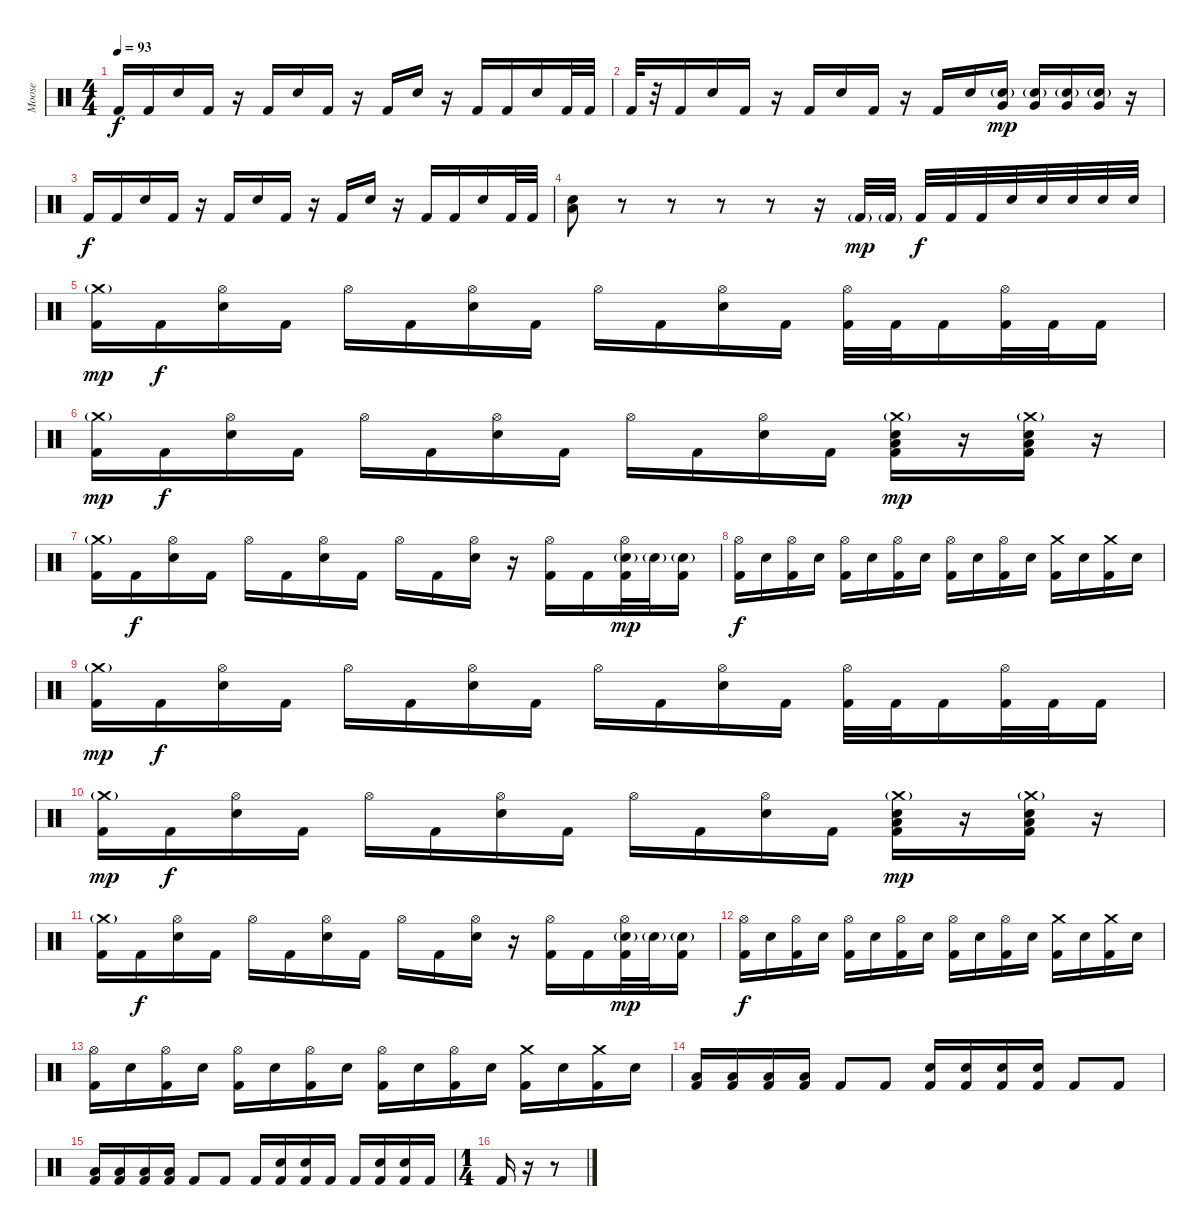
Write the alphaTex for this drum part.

\track ("Moose" "Moose") {instrument percussion}
\staff {score}
\articulation defaults
\ts (4 4)
\tempo 93
\clef neutral
\ks c "Kick (hit) 2".16{dy f} "Kick (hit) 2".16 "Electric Snare (hit)".16 "Kick (hit) 2".16
r.16 "Kick (hit) 2".16 "Electric Snare (hit)".16 "Kick (hit) 2".16 r.16 "Kick (hit) 2".16 "Electric Snare (hit)".16 r.16 "Kick (hit) 2".16 "Kick (hit) 2".16 "Electric Snare (hit)".16 "Kick (hit) 2".32 "Kick (hit) 2".32 |
"Kick (hit) 2".32 r.32 "Kick (hit) 2".16 "Electric Snare (hit)".16 "Kick (hit) 2".16 r.16 "Kick (hit) 2".16 "Electric Snare (hit)".16 "Kick (hit) 2".16 r.16 "Kick (hit) 2".16 "Electric Snare (hit)".16 ("Very Low Tom (hit)" "Electric Snare (hit)"{g}).16{dy mp} ("Very Low Tom (hit)" "Electric Snare (hit)"{g}).16 ("Very Low Tom (hit)" "Electric Snare (hit)"{g}).16 ("Very Low Tom (hit)" "Electric Snare (hit)"{g}).16 r.16 |
"Kick (hit) 2".16{dy f} "Kick (hit) 2".16 "Electric Snare (hit)".16 "Kick (hit) 2".16 r.16 "Kick (hit) 2".16 "Electric Snare (hit)".16 "Kick (hit) 2".16 r.16 "Kick (hit) 2".16 "Electric Snare (hit)".16 r.16 "Kick (hit) 2".16 "Kick (hit) 2".16 "Electric Snare (hit)".16 "Kick (hit) 2".32 "Kick (hit) 2".32 |
("Low Floor Tom (hit)" "Electric Snare (hit)").8 r.8 r.8 r.8 r.8 r.16 "Kick (hit) 2"{g}.32{dy mp} "Kick (hit) 2"{g}.32 "Kick (hit) 2".32{dy f} "Kick (hit) 2".32 "Kick (hit) 2".32 "Electric Snare (hit)".32 "Electric Snare (hit)".32 "Electric Snare (hit)".32 "Electric Snare (hit)".32 "Electric Snare (hit)".32 |
("Crash medium (hit)"{g} "Kick (hit) 2").16{dy mp} "Kick (hit) 2".16{dy f} ("Hi-Hat (open)" "Electric Snare (hit)").16 "Kick (hit) 2".16 "Hi-Hat (open)".16 "Kick (hit) 2".16 ("Hi-Hat (open)" "Electric Snare (hit)").16 "Kick (hit) 2".16 "Hi-Hat (open)".16 "Kick (hit) 2".16 ("Hi-Hat (open)" "Electric Snare (hit)").16 "Kick (hit) 2".16 ("Hi-Hat (open)" "Kick (hit) 2").32 "Kick (hit) 2".32 "Kick (hit) 2".16 ("Hi-Hat (open)" "Kick (hit) 2").32 "Kick (hit) 2".32 "Kick (hit) 2".16 |
("Crash medium (hit)"{g} "Kick (hit) 2").16{dy mp} "Kick (hit) 2".16{dy f} ("Hi-Hat (open)" "Electric Snare (hit)").16 "Kick (hit) 2".16 "Hi-Hat (open)".16 "Kick (hit) 2".16 ("Hi-Hat (open)" "Electric Snare (hit)").16 "Kick (hit) 2".16 "Hi-Hat (open)".16 "Kick (hit) 2".16 ("Hi-Hat (open)" "Electric Snare (hit)").16 "Kick (hit) 2".16 ("Crash medium (hit)"{g} "Low Floor Tom (hit)" "Electric Snare (hit)" "Kick (hit) 2").16{dy mp} r.16 ("Crash medium (hit)"{g} "Low Floor Tom (hit)" "Electric Snare (hit)" "Kick (hit) 2").16 r.16 |
("Crash medium (hit)"{g} "Kick (hit) 2").16 "Kick (hit) 2".16{dy f} ("Hi-Hat (open)" "Electric Snare (hit)").16 "Kick (hit) 2".16 "Hi-Hat (open)".16 "Kick (hit) 2".16 ("Hi-Hat (open)" "Electric Snare (hit)").16 "Kick (hit) 2".16 "Hi-Hat (open)".16 "Kick (hit) 2".16 ("Hi-Hat (open)" "Electric Snare (hit)").16 r.16 ("Hi-Hat (open)" "Kick (hit) 2").16 "Kick (hit) 2".16 ("Hi-Hat (open)" "Electric Snare (hit)"{g} "Kick (hit) 2").32{dy mp} "Electric Snare (hit)"{g}.32 ("Electric Snare (hit)"{g} "Kick (hit) 2").16 |
("Hi-Hat (open)" "Kick (hit) 2").16{dy f} "Electric Snare (hit)".16 ("Hi-Hat (open)" "Kick (hit) 2").16 "Electric Snare (hit)".16 ("Hi-Hat (open)" "Kick (hit) 2").16 "Electric Snare (hit)".16 ("Hi-Hat (open)" "Kick (hit) 2").16 "Electric Snare (hit)".16 ("Hi-Hat (open)" "Kick (hit) 2").16 "Electric Snare (hit)".16 ("Hi-Hat (open)" "Kick (hit) 2").16 "Electric Snare (hit)".16 ("Crash medium (hit)" "Kick (hit) 2").16 "Electric Snare (hit)".16 ("Crash medium (hit)" "Kick (hit) 2").16 "Electric Snare (hit)".16 |
("Crash medium (hit)"{g} "Kick (hit) 2").16{dy mp} "Kick (hit) 2".16{dy f} ("Hi-Hat (open)" "Electric Snare (hit)").16 "Kick (hit) 2".16 "Hi-Hat (open)".16 "Kick (hit) 2".16 ("Hi-Hat (open)" "Electric Snare (hit)").16 "Kick (hit) 2".16 "Hi-Hat (open)".16 "Kick (hit) 2".16 ("Hi-Hat (open)" "Electric Snare (hit)").16 "Kick (hit) 2".16 ("Hi-Hat (open)" "Kick (hit) 2").32 "Kick (hit) 2".32 "Kick (hit) 2".16 ("Hi-Hat (open)" "Kick (hit) 2").32 "Kick (hit) 2".32 "Kick (hit) 2".16 |
("Crash medium (hit)"{g} "Kick (hit) 2").16{dy mp} "Kick (hit) 2".16{dy f} ("Hi-Hat (open)" "Electric Snare (hit)").16 "Kick (hit) 2".16 "Hi-Hat (open)".16 "Kick (hit) 2".16 ("Hi-Hat (open)" "Electric Snare (hit)").16 "Kick (hit) 2".16 "Hi-Hat (open)".16 "Kick (hit) 2".16 ("Hi-Hat (open)" "Electric Snare (hit)").16 "Kick (hit) 2".16 ("Crash medium (hit)"{g} "Low Floor Tom (hit)" "Electric Snare (hit)" "Kick (hit) 2").16{dy mp} r.16 ("Crash medium (hit)"{g} "Low Floor Tom (hit)" "Electric Snare (hit)" "Kick (hit) 2").16 r.16 |
("Crash medium (hit)"{g} "Kick (hit) 2").16 "Kick (hit) 2".16{dy f} ("Hi-Hat (open)" "Electric Snare (hit)").16 "Kick (hit) 2".16 "Hi-Hat (open)".16 "Kick (hit) 2".16 ("Hi-Hat (open)" "Electric Snare (hit)").16 "Kick (hit) 2".16 "Hi-Hat (open)".16 "Kick (hit) 2".16 ("Hi-Hat (open)" "Electric Snare (hit)").16 r.16 ("Hi-Hat (open)" "Kick (hit) 2").16 "Kick (hit) 2".16 ("Hi-Hat (open)" "Electric Snare (hit)"{g} "Kick (hit) 2").32{dy mp} "Electric Snare (hit)"{g}.32 ("Electric Snare (hit)"{g} "Kick (hit) 2").16 |
("Hi-Hat (open)" "Kick (hit) 2").16{dy f} "Electric Snare (hit)".16 ("Hi-Hat (open)" "Kick (hit) 2").16 "Electric Snare (hit)".16 ("Hi-Hat (open)" "Kick (hit) 2").16 "Electric Snare (hit)".16 ("Hi-Hat (open)" "Kick (hit) 2").16 "Electric Snare (hit)".16 ("Hi-Hat (open)" "Kick (hit) 2").16 "Electric Snare (hit)".16 ("Hi-Hat (open)" "Kick (hit) 2").16 "Electric Snare (hit)".16 ("Crash medium (hit)" "Kick (hit) 2").16 "Electric Snare (hit)".16 ("Crash medium (hit)" "Kick (hit) 2").16 "Electric Snare (hit)".16 |
("Hi-Hat (open)" "Kick (hit) 2").16 "Electric Snare (hit)".16 ("Hi-Hat (open)" "Kick (hit) 2").16 "Electric Snare (hit)".16 ("Hi-Hat (open)" "Kick (hit) 2").16 "Electric Snare (hit)".16 ("Hi-Hat (open)" "Kick (hit) 2").16 "Electric Snare (hit)".16 ("Hi-Hat (open)" "Kick (hit) 2").16 "Electric Snare (hit)".16 ("Hi-Hat (open)" "Kick (hit) 2").16 "Electric Snare (hit)".16 ("Crash medium (hit)" "Kick (hit) 2").16 "Electric Snare (hit)".16 ("Crash medium (hit)" "Kick (hit) 2").16 "Electric Snare (hit)".16 |
("Low Tom (hit)" "Kick (hit) 2").16 ("Low Tom (hit)" "Kick (hit) 2").16 ("Low Tom (hit)" "Kick (hit) 2").16 ("Low Tom (hit)" "Kick (hit) 2").16 "Kick (hit) 2".8 "Kick (hit) 2".8 ("Snare (hit) 2" "Kick (hit) 2").16 ("Snare (hit) 2" "Kick (hit) 2").16 ("Snare (hit) 2" "Kick (hit) 2").16 ("Snare (hit) 2" "Kick (hit) 2").16 "Kick (hit) 2".8 "Kick (hit) 2".8 |
("Low Floor Tom (hit)" "Kick (hit) 2").16 ("Low Floor Tom (hit)" "Kick (hit) 2").16 ("Low Floor Tom (hit)" "Kick (hit) 2").16 ("Low Floor Tom (hit)" "Kick (hit) 2").16 "Kick (hit) 2".8 "Kick (hit) 2".8 "Kick (hit) 2".16 ("Electric Snare (hit)" "Kick (hit) 2").16 ("Electric Snare (hit)" "Kick (hit) 2").16 "Kick (hit) 2".16 "Kick (hit) 2".16 ("Electric Snare (hit)" "Kick (hit) 2").16 ("Electric Snare (hit)" "Kick (hit) 2").16 "Kick (hit) 2".16 |
\ts (1 4)
"Kick (hit) 2".16 r.16 r.8
